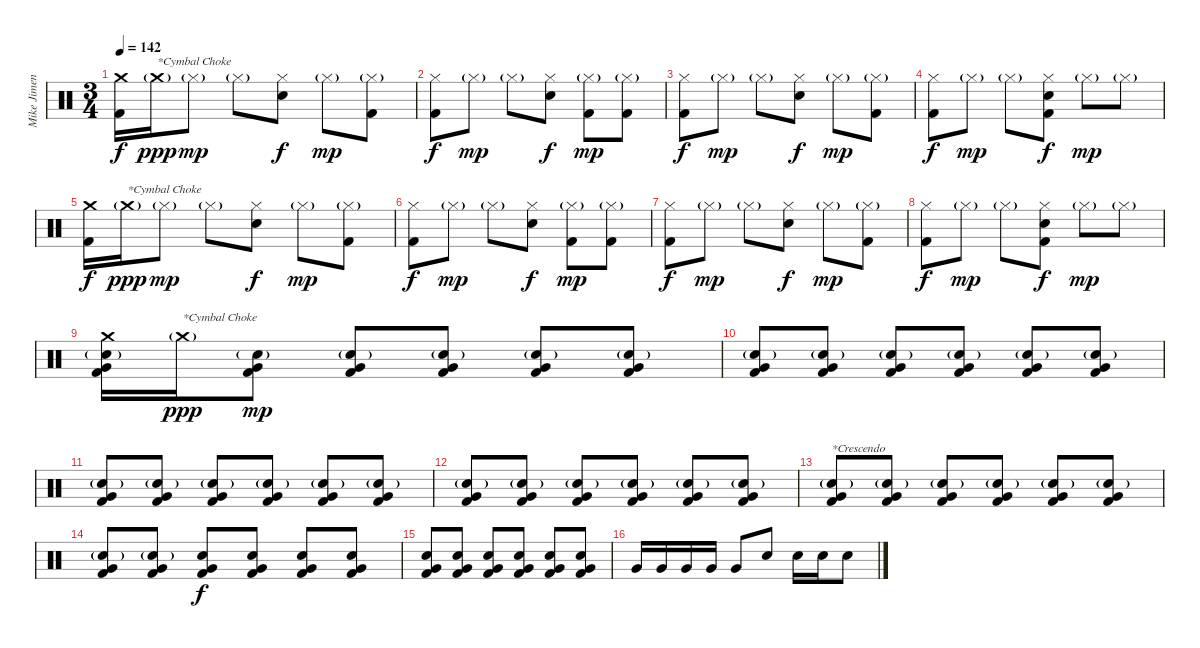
\track ("Mike Jimenez" "Mike Jimen") {instrument percussion}
\staff {score}
\articulation defaults
\ts (3 4)
\tempo 142
\clef neutral
\ks c
("Crash medium (hit)" "Kick (hit) 2").16{dy f} "Crash medium (hit)"{g}.16{txt "*Cymbal Choke" dy ppp} "Hi-Hat (closed)"{g}.8{dy mp} "Hi-Hat (closed)"{g}.8 ("Hi-Hat (closed)" "Electric Snare (hit)").8{dy f} "Hi-Hat (closed)"{g}.8{dy mp} ("Hi-Hat (closed)"{g} "Kick (hit) 2").8 |
("Hi-Hat (closed)" "Kick (hit) 2").8{dy f} "Hi-Hat (closed)"{g}.8{dy mp} "Hi-Hat (closed)"{g}.8 ("Hi-Hat (closed)" "Electric Snare (hit)").8{dy f} ("Hi-Hat (closed)"{g} "Kick (hit) 2").8{dy mp} ("Hi-Hat (closed)"{g} "Kick (hit) 2").8 |
("Hi-Hat (closed)" "Kick (hit) 2").8{dy f} "Hi-Hat (closed)"{g}.8{dy mp} "Hi-Hat (closed)"{g}.8 ("Hi-Hat (closed)" "Electric Snare (hit)").8{dy f} "Hi-Hat (closed)"{g}.8{dy mp} ("Hi-Hat (closed)"{g} "Kick (hit) 2").8 |
("Hi-Hat (closed)" "Kick (hit) 2").8{dy f} "Hi-Hat (closed)"{g}.8{dy mp} "Hi-Hat (closed)"{g}.8 ("Hi-Hat (closed)" "Electric Snare (hit)" "Kick (hit) 2").8{dy f} "Hi-Hat (closed)"{g}.8{dy mp} "Hi-Hat (closed)"{g}.8 |
("Crash medium (hit)" "Kick (hit) 2").16{dy f} "Crash medium (hit)"{g}.16{txt "*Cymbal Choke" dy ppp} "Hi-Hat (closed)"{g}.8{dy mp} "Hi-Hat (closed)"{g}.8 ("Hi-Hat (closed)" "Electric Snare (hit)").8{dy f} "Hi-Hat (closed)"{g}.8{dy mp} ("Hi-Hat (closed)"{g} "Kick (hit) 2").8 |
("Hi-Hat (closed)" "Kick (hit) 2").8{dy f} "Hi-Hat (closed)"{g}.8{dy mp} "Hi-Hat (closed)"{g}.8 ("Hi-Hat (closed)" "Electric Snare (hit)").8{dy f} ("Hi-Hat (closed)"{g} "Kick (hit) 2").8{dy mp} ("Hi-Hat (closed)"{g} "Kick (hit) 2").8 |
("Hi-Hat (closed)" "Kick (hit) 2").8{dy f} "Hi-Hat (closed)"{g}.8{dy mp} "Hi-Hat (closed)"{g}.8 ("Hi-Hat (closed)" "Electric Snare (hit)").8{dy f} "Hi-Hat (closed)"{g}.8{dy mp} ("Hi-Hat (closed)"{g} "Kick (hit) 2").8 |
("Hi-Hat (closed)" "Kick (hit) 2").8{dy f} "Hi-Hat (closed)"{g}.8{dy mp} "Hi-Hat (closed)"{g}.8 ("Hi-Hat (closed)" "Electric Snare (hit)" "Kick (hit) 2").8{dy f} "Hi-Hat (closed)"{g}.8{dy mp} "Hi-Hat (closed)"{g}.8 |
("Crash medium (hit)" "Electric Snare (hit)"{g} "Very Low Tom (hit)" "Kick (hit) 2").16{volume 9} "Crash medium (hit)"{g}.16{txt "*Cymbal Choke" dy ppp} ("Electric Snare (hit)"{g} "Very Low Tom (hit)" "Kick (hit) 2").8{dy mp} ("Electric Snare (hit)"{g} "Very Low Tom (hit)" "Kick (hit) 2").8 ("Electric Snare (hit)"{g} "Very Low Tom (hit)" "Kick (hit) 2").8 ("Electric Snare (hit)"{g} "Very Low Tom (hit)" "Kick (hit) 2").8 ("Electric Snare (hit)"{g} "Very Low Tom (hit)" "Kick (hit) 2").8 |
("Electric Snare (hit)"{g} "Very Low Tom (hit)" "Kick (hit) 2").8 ("Electric Snare (hit)"{g} "Very Low Tom (hit)" "Kick (hit) 2").8 ("Electric Snare (hit)"{g} "Very Low Tom (hit)" "Kick (hit) 2").8 ("Electric Snare (hit)"{g} "Very Low Tom (hit)" "Kick (hit) 2").8 ("Electric Snare (hit)"{g} "Very Low Tom (hit)" "Kick (hit) 2").8 ("Electric Snare (hit)"{g} "Very Low Tom (hit)" "Kick (hit) 2").8 |
("Electric Snare (hit)"{g} "Very Low Tom (hit)" "Kick (hit) 2").8 ("Electric Snare (hit)"{g} "Very Low Tom (hit)" "Kick (hit) 2").8 ("Electric Snare (hit)"{g} "Very Low Tom (hit)" "Kick (hit) 2").8 ("Electric Snare (hit)"{g} "Very Low Tom (hit)" "Kick (hit) 2").8 ("Electric Snare (hit)"{g} "Very Low Tom (hit)" "Kick (hit) 2").8 ("Electric Snare (hit)"{g} "Very Low Tom (hit)" "Kick (hit) 2").8 |
("Electric Snare (hit)"{g} "Very Low Tom (hit)" "Kick (hit) 2").8 ("Electric Snare (hit)"{g} "Very Low Tom (hit)" "Kick (hit) 2").8 ("Electric Snare (hit)"{g} "Very Low Tom (hit)" "Kick (hit) 2").8 ("Electric Snare (hit)"{g} "Very Low Tom (hit)" "Kick (hit) 2").8 ("Electric Snare (hit)"{g} "Very Low Tom (hit)" "Kick (hit) 2").8 ("Electric Snare (hit)"{g} "Very Low Tom (hit)" "Kick (hit) 2").8 |
("Electric Snare (hit)"{g} "Very Low Tom (hit)" "Kick (hit) 2").8{txt "*Crescendo" volume 16} ("Electric Snare (hit)"{g} "Very Low Tom (hit)" "Kick (hit) 2").8 ("Electric Snare (hit)"{g} "Very Low Tom (hit)" "Kick (hit) 2").8 ("Electric Snare (hit)"{g} "Very Low Tom (hit)" "Kick (hit) 2").8 ("Electric Snare (hit)"{g} "Very Low Tom (hit)" "Kick (hit) 2").8 ("Electric Snare (hit)"{g} "Very Low Tom (hit)" "Kick (hit) 2").8 |
("Electric Snare (hit)"{g} "Very Low Tom (hit)" "Kick (hit) 2").8 ("Electric Snare (hit)"{g} "Very Low Tom (hit)" "Kick (hit) 2").8 ("Electric Snare (hit)" "Very Low Tom (hit)" "Kick (hit) 2").8{dy f} ("Electric Snare (hit)" "Very Low Tom (hit)" "Kick (hit) 2").8 ("Electric Snare (hit)" "Very Low Tom (hit)" "Kick (hit) 2").8 ("Electric Snare (hit)" "Very Low Tom (hit)" "Kick (hit) 2").8 |
("Electric Snare (hit)" "Very Low Tom (hit)" "Kick (hit) 2").8 ("Electric Snare (hit)" "Very Low Tom (hit)" "Kick (hit) 2").8 ("Electric Snare (hit)" "Very Low Tom (hit)" "Kick (hit) 2").8 ("Electric Snare (hit)" "Very Low Tom (hit)" "Kick (hit) 2").8 ("Electric Snare (hit)" "Very Low Tom (hit)" "Kick (hit) 2").8 ("Electric Snare (hit)" "Very Low Tom (hit)" "Kick (hit) 2").8 |
"Very Low Tom (hit)".16 "Very Low Tom (hit)".16 "Very Low Tom (hit)".16 "Very Low Tom (hit)".16 "Very Low Tom (hit)".8 "Electric Snare (hit)".8 "Electric Snare (hit)".16 "Electric Snare (hit)".16 "Electric Snare (hit)".8
